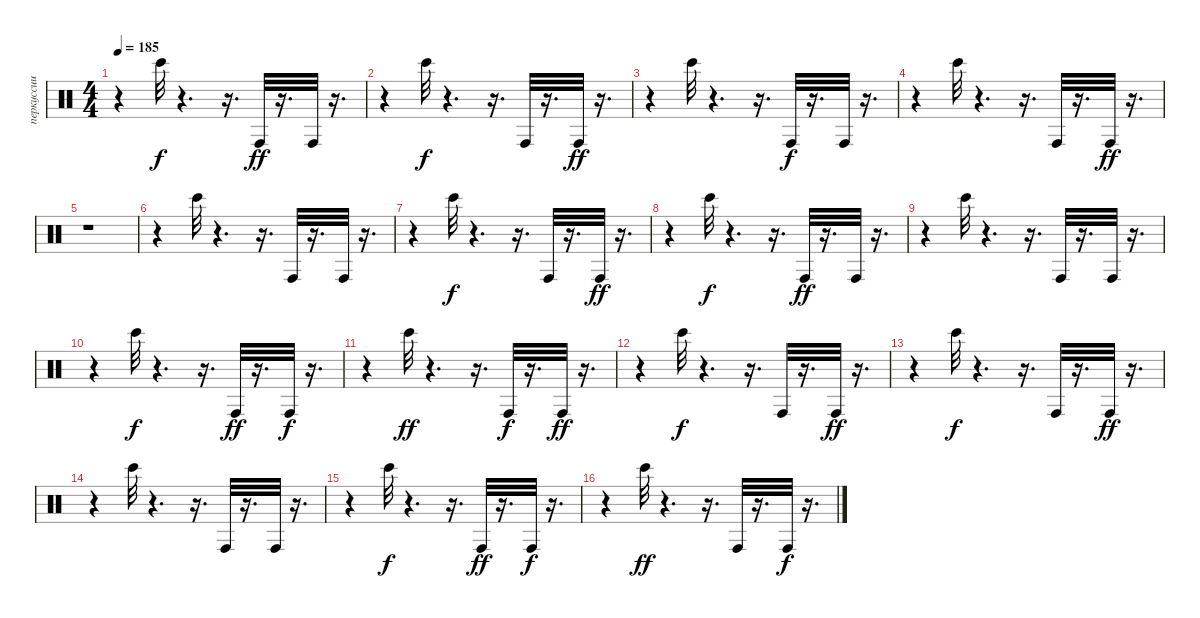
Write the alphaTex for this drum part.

\track ("перкуссии" "перкуссии") {instrument percussion}
\staff {score}
\articulation defaults
\ts (4 4)
\tempo 185
\clef neutral
\ks c
r.4{dy ff} "Bongo High (hit)".32{dy f} r.4{d} r.16{d} "Conga high (hit)".32{dy ff} r.16{d} "Conga high (hit)".32 r.16{d} |
r.4 "Bongo High (hit)".32{dy f} r.4{d} r.16{d} "Conga high (hit)".32 r.16{d} "Conga high (hit)".32{dy ff} r.16{d} |
r.4 "Bongo High (hit)".32 r.4{d} r.16{d} "Conga high (hit)".32{dy f} r.16{d} "Conga high (hit)".32 r.16{d} |
r.4 "Bongo High (hit)".32 r.4{d} r.16{d} "Conga high (hit)".32 r.16{d} "Conga high (hit)".32{dy ff} r.16{d} |
r.1 |
r.4 "Bongo High (hit)".32 r.4{d} r.16{d} "Conga high (hit)".32 r.16{d} "Conga high (hit)".32 r.16{d} |
r.4 "Bongo High (hit)".32{dy f} r.4{d} r.16{d} "Conga high (hit)".32 r.16{d} "Conga high (hit)".32{dy ff} r.16{d} |
r.4 "Bongo High (hit)".32{dy f} r.4{d} r.16{d} "Conga high (hit)".32{dy ff} r.16{d} "Conga high (hit)".32 r.16{d} |
r.4 "Bongo High (hit)".32 r.4{d} r.16{d} "Conga high (hit)".32 r.16{d} "Conga high (hit)".32 r.16{d} |
r.4 "Bongo High (hit)".32{dy f} r.4{d} r.16{d} "Conga high (hit)".32{dy ff} r.16{d} "Conga high (hit)".32{dy f} r.16{d} |
r.4 "Bongo High (hit)".32{dy ff} r.4{d} r.16{d} "Conga high (hit)".32{dy f} r.16{d} "Conga high (hit)".32{dy ff} r.16{d} |
r.4 "Bongo High (hit)".32{dy f} r.4{d} r.16{d} "Conga high (hit)".32 r.16{d} "Conga high (hit)".32{dy ff} r.16{d} |
r.4 "Bongo High (hit)".32{dy f} r.4{d} r.16{d} "Conga high (hit)".32 r.16{d} "Conga high (hit)".32{dy ff} r.16{d} |
r.4 "Bongo High (hit)".32 r.4{d} r.16{d} "Conga high (hit)".32 r.16{d} "Conga high (hit)".32 r.16{d} |
r.4 "Bongo High (hit)".32{dy f} r.4{d} r.16{d} "Conga high (hit)".32{dy ff} r.16{d} "Conga high (hit)".32{dy f} r.16{d} |
r.4 "Bongo High (hit)".32{dy ff} r.4{d} r.16{d} "Conga high (hit)".32 r.16{d} "Conga high (hit)".32{dy f} r.16{d}
